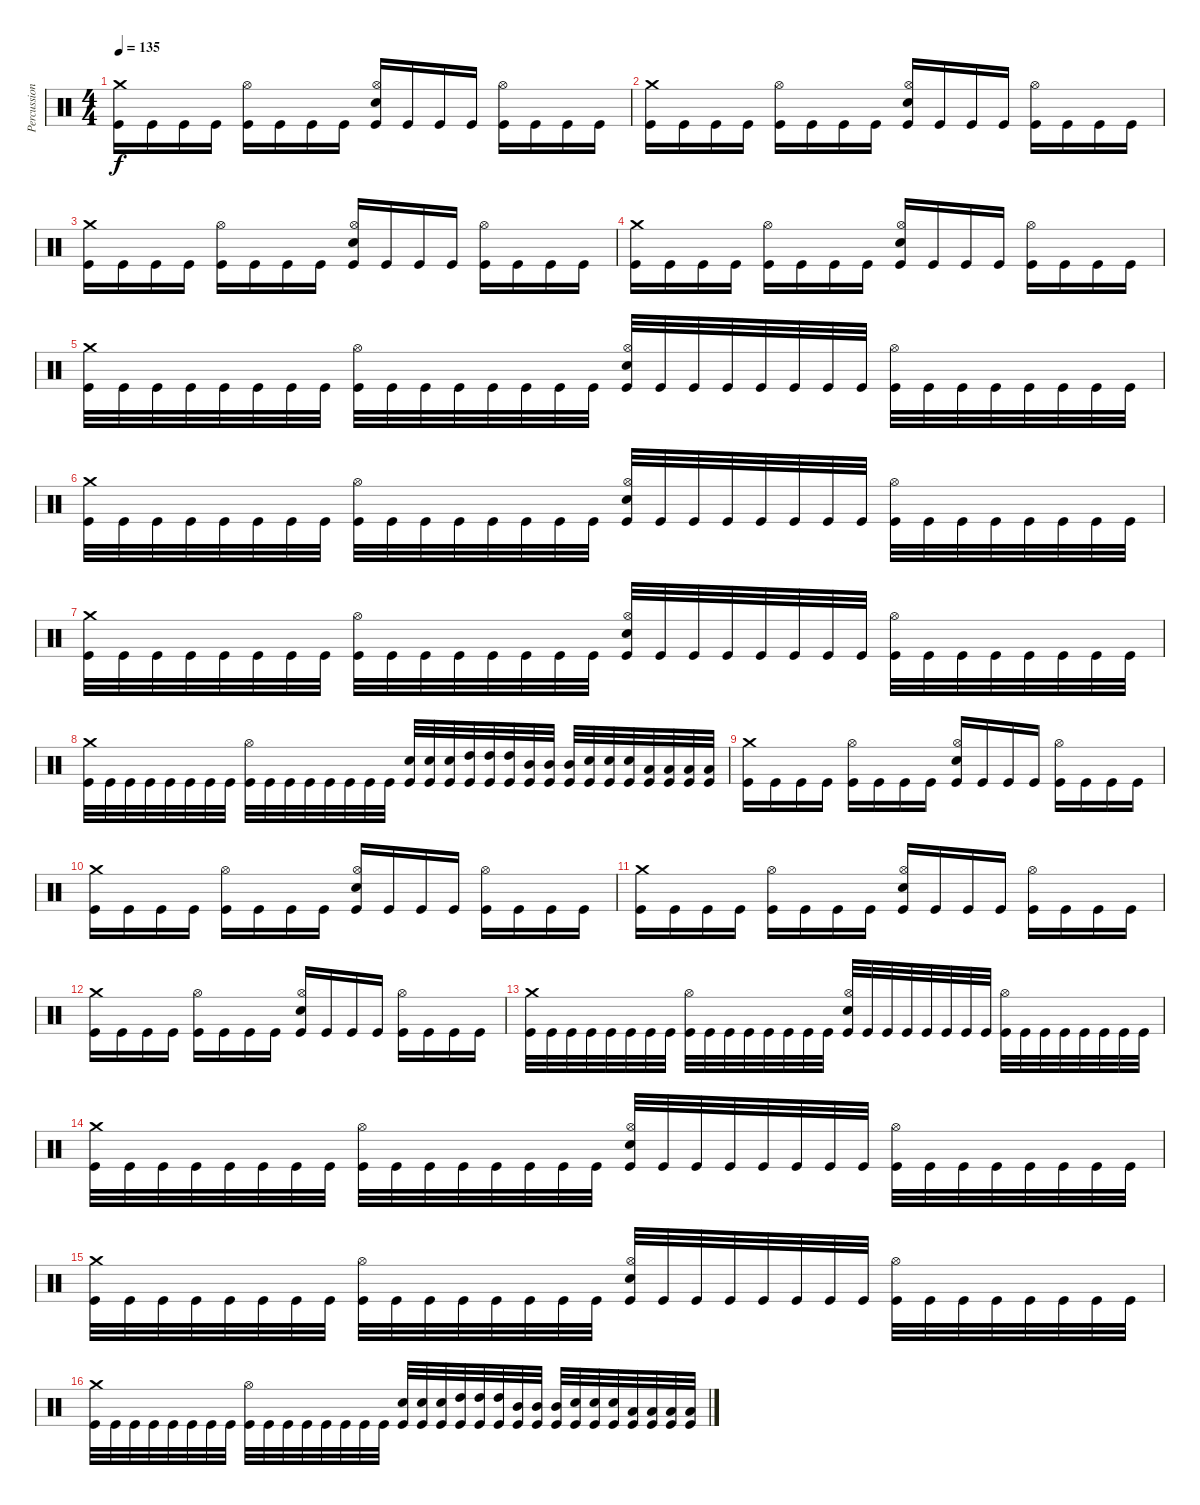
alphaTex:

\track ("Percussion" "Percussion") {instrument percussion}
\staff {score}
\articulation defaults
\ts (4 4)
\tempo 135
\clef neutral
\ks c
("Crash medium (hit)" "Kick (hit)").16{dy f} "Kick (hit)".16 "Kick (hit)".16 "Kick (hit)".16 ("Hi-Hat (open)" "Kick (hit)").16 "Kick (hit)".16 "Kick (hit)".16 "Kick (hit)".16 ("Hi-Hat (open)" "Electric Snare (hit)" "Kick (hit)").16 "Kick (hit)".16 "Kick (hit)".16 "Kick (hit)".16 ("Hi-Hat (open)" "Kick (hit)").16 "Kick (hit)".16 "Kick (hit)".16 "Kick (hit)".16 |
("Crash medium (hit)" "Kick (hit)").16 "Kick (hit)".16 "Kick (hit)".16 "Kick (hit)".16 ("Hi-Hat (open)" "Kick (hit)").16 "Kick (hit)".16 "Kick (hit)".16 "Kick (hit)".16 ("Hi-Hat (open)" "Electric Snare (hit)" "Kick (hit)").16 "Kick (hit)".16 "Kick (hit)".16 "Kick (hit)".16 ("Hi-Hat (open)" "Kick (hit)").16 "Kick (hit)".16 "Kick (hit)".16 "Kick (hit)".16 |
("Crash medium (hit)" "Kick (hit)").16 "Kick (hit)".16 "Kick (hit)".16 "Kick (hit)".16 ("Hi-Hat (open)" "Kick (hit)").16 "Kick (hit)".16 "Kick (hit)".16 "Kick (hit)".16 ("Hi-Hat (open)" "Electric Snare (hit)" "Kick (hit)").16 "Kick (hit)".16 "Kick (hit)".16 "Kick (hit)".16 ("Hi-Hat (open)" "Kick (hit)").16 "Kick (hit)".16 "Kick (hit)".16 "Kick (hit)".16 |
("Crash medium (hit)" "Kick (hit)").16 "Kick (hit)".16 "Kick (hit)".16 "Kick (hit)".16 ("Hi-Hat (open)" "Kick (hit)").16 "Kick (hit)".16 "Kick (hit)".16 "Kick (hit)".16 ("Hi-Hat (open)" "Electric Snare (hit)" "Kick (hit)").16 "Kick (hit)".16 "Kick (hit)".16 "Kick (hit)".16 ("Hi-Hat (open)" "Kick (hit)").16 "Kick (hit)".16 "Kick (hit)".16 "Kick (hit)".16 |
("Crash medium (hit)" "Kick (hit)").32 "Kick (hit)".32 "Kick (hit)".32 "Kick (hit)".32 "Kick (hit)".32 "Kick (hit)".32 "Kick (hit)".32 "Kick (hit)".32 ("Hi-Hat (open)" "Kick (hit)").32 "Kick (hit)".32 "Kick (hit)".32 "Kick (hit)".32 "Kick (hit)".32 "Kick (hit)".32 "Kick (hit)".32 "Kick (hit)".32 ("Hi-Hat (open)" "Electric Snare (hit)" "Kick (hit)").32 "Kick (hit)".32 "Kick (hit)".32 "Kick (hit)".32 "Kick (hit)".32 "Kick (hit)".32 "Kick (hit)".32 "Kick (hit)".32 ("Hi-Hat (open)" "Kick (hit)").32 "Kick (hit)".32 "Kick (hit)".32 "Kick (hit)".32 "Kick (hit)".32 "Kick (hit)".32 "Kick (hit)".32 "Kick (hit)".32 |
("Crash medium (hit)" "Kick (hit)").32 "Kick (hit)".32 "Kick (hit)".32 "Kick (hit)".32 "Kick (hit)".32 "Kick (hit)".32 "Kick (hit)".32 "Kick (hit)".32 ("Hi-Hat (open)" "Kick (hit)").32 "Kick (hit)".32 "Kick (hit)".32 "Kick (hit)".32 "Kick (hit)".32 "Kick (hit)".32 "Kick (hit)".32 "Kick (hit)".32 ("Hi-Hat (open)" "Electric Snare (hit)" "Kick (hit)").32 "Kick (hit)".32 "Kick (hit)".32 "Kick (hit)".32 "Kick (hit)".32 "Kick (hit)".32 "Kick (hit)".32 "Kick (hit)".32 ("Hi-Hat (open)" "Kick (hit)").32 "Kick (hit)".32 "Kick (hit)".32 "Kick (hit)".32 "Kick (hit)".32 "Kick (hit)".32 "Kick (hit)".32 "Kick (hit)".32 |
("Crash medium (hit)" "Kick (hit)").32 "Kick (hit)".32 "Kick (hit)".32 "Kick (hit)".32 "Kick (hit)".32 "Kick (hit)".32 "Kick (hit)".32 "Kick (hit)".32 ("Hi-Hat (open)" "Kick (hit)").32 "Kick (hit)".32 "Kick (hit)".32 "Kick (hit)".32 "Kick (hit)".32 "Kick (hit)".32 "Kick (hit)".32 "Kick (hit)".32 ("Hi-Hat (open)" "Electric Snare (hit)" "Kick (hit)").32 "Kick (hit)".32 "Kick (hit)".32 "Kick (hit)".32 "Kick (hit)".32 "Kick (hit)".32 "Kick (hit)".32 "Kick (hit)".32 ("Hi-Hat (open)" "Kick (hit)").32 "Kick (hit)".32 "Kick (hit)".32 "Kick (hit)".32 "Kick (hit)".32 "Kick (hit)".32 "Kick (hit)".32 "Kick (hit)".32 |
("Crash medium (hit)" "Kick (hit)").32 "Kick (hit)".32 "Kick (hit)".32 "Kick (hit)".32 "Kick (hit)".32 "Kick (hit)".32 "Kick (hit)".32 "Kick (hit)".32 ("Hi-Hat (open)" "Kick (hit)").32 "Kick (hit)".32 "Kick (hit)".32 "Kick (hit)".32 "Kick (hit)".32 "Kick (hit)".32 "Kick (hit)".32 "Kick (hit)".32 ("Electric Snare (hit)" "Kick (hit)").32 ("Electric Snare (hit)" "Kick (hit)").32 ("Electric Snare (hit)" "Kick (hit)").32 ("High Tom (hit)" "Kick (hit)").32 ("High Tom (hit)" "Kick (hit)").32 ("High Tom (hit)" "Kick (hit)").32 ("Mid Tom (hit)" "Kick (hit)").32 ("Mid Tom (hit)" "Kick (hit)").32 ("Mid Tom (hit)" "Kick (hit)").32 ("Electric Snare (hit)" "Kick (hit)").32 ("Electric Snare (hit)" "Kick (hit)").32 ("Electric Snare (hit)" "Kick (hit)").32 ("Low Tom (hit)" "Kick (hit)").32 ("Low Tom (hit)" "Kick (hit)").32 ("Low Tom (hit)" "Kick (hit)").32 ("Low Floor Tom (hit)" "Kick (hit)").32 |
("Crash medium (hit)" "Kick (hit)").16 "Kick (hit)".16 "Kick (hit)".16 "Kick (hit)".16 ("Hi-Hat (open)" "Kick (hit)").16 "Kick (hit)".16 "Kick (hit)".16 "Kick (hit)".16 ("Hi-Hat (open)" "Electric Snare (hit)" "Kick (hit)").16 "Kick (hit)".16 "Kick (hit)".16 "Kick (hit)".16 ("Hi-Hat (open)" "Kick (hit)").16 "Kick (hit)".16 "Kick (hit)".16 "Kick (hit)".16 |
("Crash medium (hit)" "Kick (hit)").16 "Kick (hit)".16 "Kick (hit)".16 "Kick (hit)".16 ("Hi-Hat (open)" "Kick (hit)").16 "Kick (hit)".16 "Kick (hit)".16 "Kick (hit)".16 ("Hi-Hat (open)" "Electric Snare (hit)" "Kick (hit)").16 "Kick (hit)".16 "Kick (hit)".16 "Kick (hit)".16 ("Hi-Hat (open)" "Kick (hit)").16 "Kick (hit)".16 "Kick (hit)".16 "Kick (hit)".16 |
("Crash medium (hit)" "Kick (hit)").16 "Kick (hit)".16 "Kick (hit)".16 "Kick (hit)".16 ("Hi-Hat (open)" "Kick (hit)").16 "Kick (hit)".16 "Kick (hit)".16 "Kick (hit)".16 ("Hi-Hat (open)" "Electric Snare (hit)" "Kick (hit)").16 "Kick (hit)".16 "Kick (hit)".16 "Kick (hit)".16 ("Hi-Hat (open)" "Kick (hit)").16 "Kick (hit)".16 "Kick (hit)".16 "Kick (hit)".16 |
("Crash medium (hit)" "Kick (hit)").16 "Kick (hit)".16 "Kick (hit)".16 "Kick (hit)".16 ("Hi-Hat (open)" "Kick (hit)").16 "Kick (hit)".16 "Kick (hit)".16 "Kick (hit)".16 ("Hi-Hat (open)" "Electric Snare (hit)" "Kick (hit)").16 "Kick (hit)".16 "Kick (hit)".16 "Kick (hit)".16 ("Hi-Hat (open)" "Kick (hit)").16 "Kick (hit)".16 "Kick (hit)".16 "Kick (hit)".16 |
("Crash medium (hit)" "Kick (hit)").32 "Kick (hit)".32 "Kick (hit)".32 "Kick (hit)".32 "Kick (hit)".32 "Kick (hit)".32 "Kick (hit)".32 "Kick (hit)".32 ("Hi-Hat (open)" "Kick (hit)").32 "Kick (hit)".32 "Kick (hit)".32 "Kick (hit)".32 "Kick (hit)".32 "Kick (hit)".32 "Kick (hit)".32 "Kick (hit)".32 ("Hi-Hat (open)" "Electric Snare (hit)" "Kick (hit)").32 "Kick (hit)".32 "Kick (hit)".32 "Kick (hit)".32 "Kick (hit)".32 "Kick (hit)".32 "Kick (hit)".32 "Kick (hit)".32 ("Hi-Hat (open)" "Kick (hit)").32 "Kick (hit)".32 "Kick (hit)".32 "Kick (hit)".32 "Kick (hit)".32 "Kick (hit)".32 "Kick (hit)".32 "Kick (hit)".32 |
("Crash medium (hit)" "Kick (hit)").32 "Kick (hit)".32 "Kick (hit)".32 "Kick (hit)".32 "Kick (hit)".32 "Kick (hit)".32 "Kick (hit)".32 "Kick (hit)".32 ("Hi-Hat (open)" "Kick (hit)").32 "Kick (hit)".32 "Kick (hit)".32 "Kick (hit)".32 "Kick (hit)".32 "Kick (hit)".32 "Kick (hit)".32 "Kick (hit)".32 ("Hi-Hat (open)" "Electric Snare (hit)" "Kick (hit)").32 "Kick (hit)".32 "Kick (hit)".32 "Kick (hit)".32 "Kick (hit)".32 "Kick (hit)".32 "Kick (hit)".32 "Kick (hit)".32 ("Hi-Hat (open)" "Kick (hit)").32 "Kick (hit)".32 "Kick (hit)".32 "Kick (hit)".32 "Kick (hit)".32 "Kick (hit)".32 "Kick (hit)".32 "Kick (hit)".32 |
("Crash medium (hit)" "Kick (hit)").32 "Kick (hit)".32 "Kick (hit)".32 "Kick (hit)".32 "Kick (hit)".32 "Kick (hit)".32 "Kick (hit)".32 "Kick (hit)".32 ("Hi-Hat (open)" "Kick (hit)").32 "Kick (hit)".32 "Kick (hit)".32 "Kick (hit)".32 "Kick (hit)".32 "Kick (hit)".32 "Kick (hit)".32 "Kick (hit)".32 ("Hi-Hat (open)" "Electric Snare (hit)" "Kick (hit)").32 "Kick (hit)".32 "Kick (hit)".32 "Kick (hit)".32 "Kick (hit)".32 "Kick (hit)".32 "Kick (hit)".32 "Kick (hit)".32 ("Hi-Hat (open)" "Kick (hit)").32 "Kick (hit)".32 "Kick (hit)".32 "Kick (hit)".32 "Kick (hit)".32 "Kick (hit)".32 "Kick (hit)".32 "Kick (hit)".32 |
("Crash medium (hit)" "Kick (hit)").32 "Kick (hit)".32 "Kick (hit)".32 "Kick (hit)".32 "Kick (hit)".32 "Kick (hit)".32 "Kick (hit)".32 "Kick (hit)".32 ("Hi-Hat (open)" "Kick (hit)").32 "Kick (hit)".32 "Kick (hit)".32 "Kick (hit)".32 "Kick (hit)".32 "Kick (hit)".32 "Kick (hit)".32 "Kick (hit)".32 ("Electric Snare (hit)" "Kick (hit)").32 ("Electric Snare (hit)" "Kick (hit)").32 ("Electric Snare (hit)" "Kick (hit)").32 ("High Tom (hit)" "Kick (hit)").32 ("High Tom (hit)" "Kick (hit)").32 ("High Tom (hit)" "Kick (hit)").32 ("Mid Tom (hit)" "Kick (hit)").32 ("Mid Tom (hit)" "Kick (hit)").32 ("Mid Tom (hit)" "Kick (hit)").32 ("Electric Snare (hit)" "Kick (hit)").32 ("Electric Snare (hit)" "Kick (hit)").32 ("Electric Snare (hit)" "Kick (hit)").32 ("Low Tom (hit)" "Kick (hit)").32 ("Low Tom (hit)" "Kick (hit)").32 ("Low Tom (hit)" "Kick (hit)").32 ("Low Floor Tom (hit)" "Kick (hit)").32
